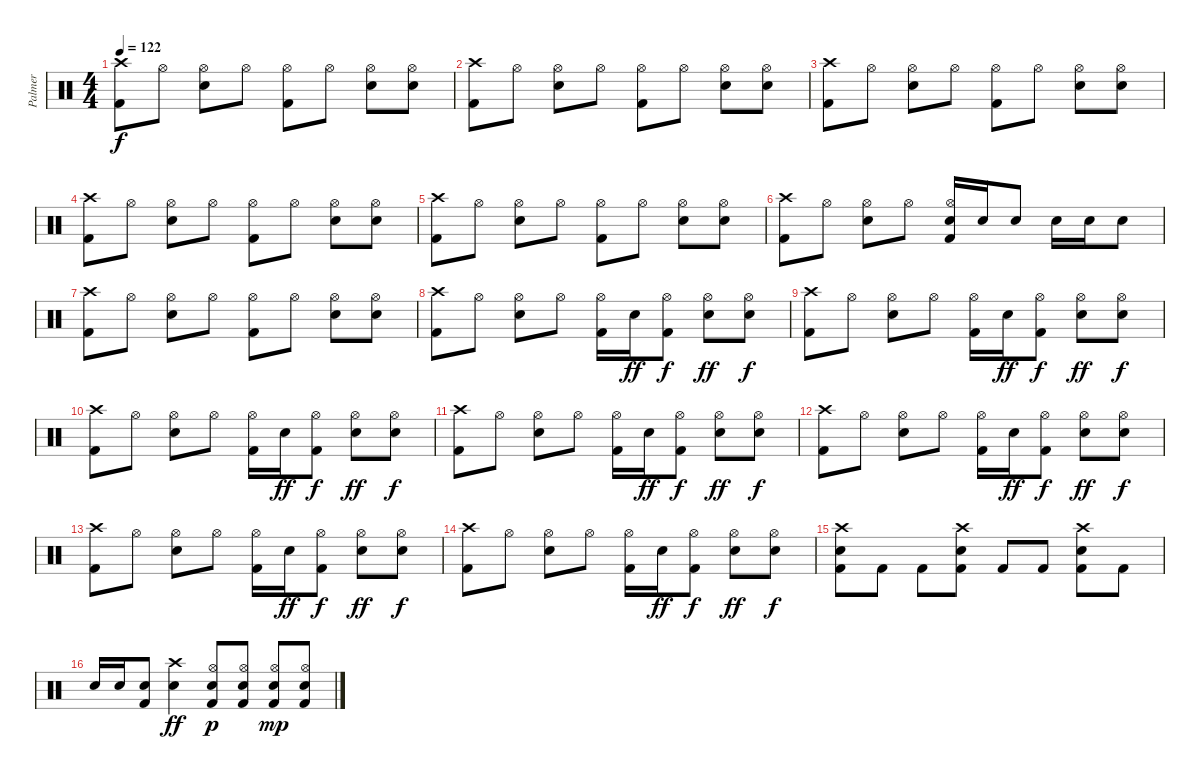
\track ("Palmer" "Palmer") {instrument percussion}
\staff {score}
\articulation defaults
\ts (4 4)
\tempo 122
\clef neutral
\ks c
("Crash high (hit)" "Kick (hit) 2").8{dy f} "Hi-Hat (open)".8 ("Hi-Hat (open)" "Electric Snare (hit)").8 "Hi-Hat (open)".8 ("Hi-Hat (open)" "Kick (hit) 2").8 "Hi-Hat (open)".8 ("Hi-Hat (open)" "Electric Snare (hit)").8 ("Hi-Hat (open)" "Electric Snare (hit)").8 |
("Crash high (hit)" "Kick (hit) 2").8 "Hi-Hat (open)".8 ("Hi-Hat (open)" "Electric Snare (hit)").8 "Hi-Hat (open)".8 ("Hi-Hat (open)" "Kick (hit) 2").8 "Hi-Hat (open)".8 ("Hi-Hat (open)" "Electric Snare (hit)").8 ("Hi-Hat (open)" "Electric Snare (hit)").8 |
("Crash high (hit)" "Kick (hit) 2").8 "Hi-Hat (open)".8 ("Hi-Hat (open)" "Electric Snare (hit)").8 "Hi-Hat (open)".8 ("Hi-Hat (open)" "Kick (hit) 2").8 "Hi-Hat (open)".8 ("Hi-Hat (open)" "Electric Snare (hit)").8 ("Hi-Hat (open)" "Electric Snare (hit)").8 |
("Crash high (hit)" "Kick (hit) 2").8 "Hi-Hat (open)".8 ("Hi-Hat (open)" "Electric Snare (hit)").8 "Hi-Hat (open)".8 ("Hi-Hat (open)" "Kick (hit) 2").8 "Hi-Hat (open)".8 ("Hi-Hat (open)" "Electric Snare (hit)").8 ("Hi-Hat (open)" "Electric Snare (hit)").8 |
("Crash high (hit)" "Kick (hit) 2").8 "Hi-Hat (open)".8 ("Hi-Hat (open)" "Electric Snare (hit)").8 "Hi-Hat (open)".8 ("Hi-Hat (open)" "Kick (hit) 2").8 "Hi-Hat (open)".8 ("Hi-Hat (open)" "Electric Snare (hit)").8 ("Hi-Hat (open)" "Electric Snare (hit)").8 |
("Crash high (hit)" "Kick (hit) 2").8 "Hi-Hat (open)".8 ("Hi-Hat (open)" "Electric Snare (hit)").8 "Hi-Hat (open)".8 ("Hi-Hat (open)" "Electric Snare (hit)" "Kick (hit) 2").16 "Electric Snare (hit)".16 "Electric Snare (hit)".8 "Electric Snare (hit)".16 "Electric Snare (hit)".16 "Electric Snare (hit)".8 |
("Crash high (hit)" "Kick (hit) 2").8 "Hi-Hat (open)".8 ("Hi-Hat (open)" "Electric Snare (hit)").8 "Hi-Hat (open)".8 ("Hi-Hat (open)" "Kick (hit) 2").8 "Hi-Hat (open)".8 ("Hi-Hat (open)" "Electric Snare (hit)").8 ("Hi-Hat (open)" "Electric Snare (hit)").8 |
("Crash high (hit)" "Kick (hit) 2").8 "Hi-Hat (open)".8 ("Hi-Hat (open)" "Electric Snare (hit)").8 "Hi-Hat (open)".8 ("Hi-Hat (open)" "Kick (hit) 2").16 "Electric Snare (hit)".16{dy ff} ("Hi-Hat (open)" "Kick (hit) 2").8{dy f} ("Hi-Hat (open)" "Electric Snare (hit)").8{dy ff} ("Hi-Hat (open)" "Electric Snare (hit)").8{dy f} |
("Crash high (hit)" "Kick (hit) 2").8 "Hi-Hat (open)".8 ("Hi-Hat (open)" "Electric Snare (hit)").8 "Hi-Hat (open)".8 ("Hi-Hat (open)" "Kick (hit) 2").16 "Electric Snare (hit)".16{dy ff} ("Hi-Hat (open)" "Kick (hit) 2").8{dy f} ("Hi-Hat (open)" "Electric Snare (hit)").8{dy ff} ("Hi-Hat (open)" "Electric Snare (hit)").8{dy f} |
("Crash high (hit)" "Kick (hit) 2").8 "Hi-Hat (open)".8 ("Hi-Hat (open)" "Electric Snare (hit)").8 "Hi-Hat (open)".8 ("Hi-Hat (open)" "Kick (hit) 2").16 "Electric Snare (hit)".16{dy ff} ("Hi-Hat (open)" "Kick (hit) 2").8{dy f} ("Hi-Hat (open)" "Electric Snare (hit)").8{dy ff} ("Hi-Hat (open)" "Electric Snare (hit)").8{dy f} |
("Crash high (hit)" "Kick (hit) 2").8 "Hi-Hat (open)".8 ("Hi-Hat (open)" "Electric Snare (hit)").8 "Hi-Hat (open)".8 ("Hi-Hat (open)" "Kick (hit) 2").16 "Electric Snare (hit)".16{dy ff} ("Hi-Hat (open)" "Kick (hit) 2").8{dy f} ("Hi-Hat (open)" "Electric Snare (hit)").8{dy ff} ("Hi-Hat (open)" "Electric Snare (hit)").8{dy f} |
("Crash high (hit)" "Kick (hit) 2").8 "Hi-Hat (open)".8 ("Hi-Hat (open)" "Electric Snare (hit)").8 "Hi-Hat (open)".8 ("Hi-Hat (open)" "Kick (hit) 2").16 "Electric Snare (hit)".16{dy ff} ("Hi-Hat (open)" "Kick (hit) 2").8{dy f} ("Hi-Hat (open)" "Electric Snare (hit)").8{dy ff} ("Hi-Hat (open)" "Electric Snare (hit)").8{dy f} |
("Crash high (hit)" "Kick (hit) 2").8 "Hi-Hat (open)".8 ("Hi-Hat (open)" "Electric Snare (hit)").8 "Hi-Hat (open)".8 ("Hi-Hat (open)" "Kick (hit) 2").16 "Electric Snare (hit)".16{dy ff} ("Hi-Hat (open)" "Kick (hit) 2").8{dy f} ("Hi-Hat (open)" "Electric Snare (hit)").8{dy ff} ("Hi-Hat (open)" "Electric Snare (hit)").8{dy f} |
("Crash high (hit)" "Kick (hit) 2").8 "Hi-Hat (open)".8 ("Hi-Hat (open)" "Electric Snare (hit)").8 "Hi-Hat (open)".8 ("Hi-Hat (open)" "Kick (hit) 2").16 "Electric Snare (hit)".16{dy ff} ("Hi-Hat (open)" "Kick (hit) 2").8{dy f} ("Hi-Hat (open)" "Electric Snare (hit)").8{dy ff} ("Hi-Hat (open)" "Electric Snare (hit)").8{dy f} |
("Crash high (hit)" "Electric Snare (hit)" "Kick (hit) 2").8 "Kick (hit) 2".8 "Kick (hit) 2".8 ("Crash high (hit)" "Electric Snare (hit)" "Kick (hit) 2").8 "Kick (hit) 2".8 "Kick (hit) 2".8 ("Crash high (hit)" "Electric Snare (hit)" "Kick (hit) 2").8 "Kick (hit) 2".8 |
"Electric Snare (hit)".16 "Electric Snare (hit)".16 ("Electric Snare (hit)" "Kick (hit) 2").8 ("Crash high (hit)" "Electric Snare (hit)").4{dy ff} ("Hi-Hat (open)" "Electric Snare (hit)" "Kick (hit) 2").8{dy p} ("Hi-Hat (open)" "Electric Snare (hit)" "Kick (hit) 2").8 ("Hi-Hat (open)" "Electric Snare (hit)" "Kick (hit) 2").8{dy mp} ("Hi-Hat (open)" "Electric Snare (hit)" "Kick (hit) 2").8
